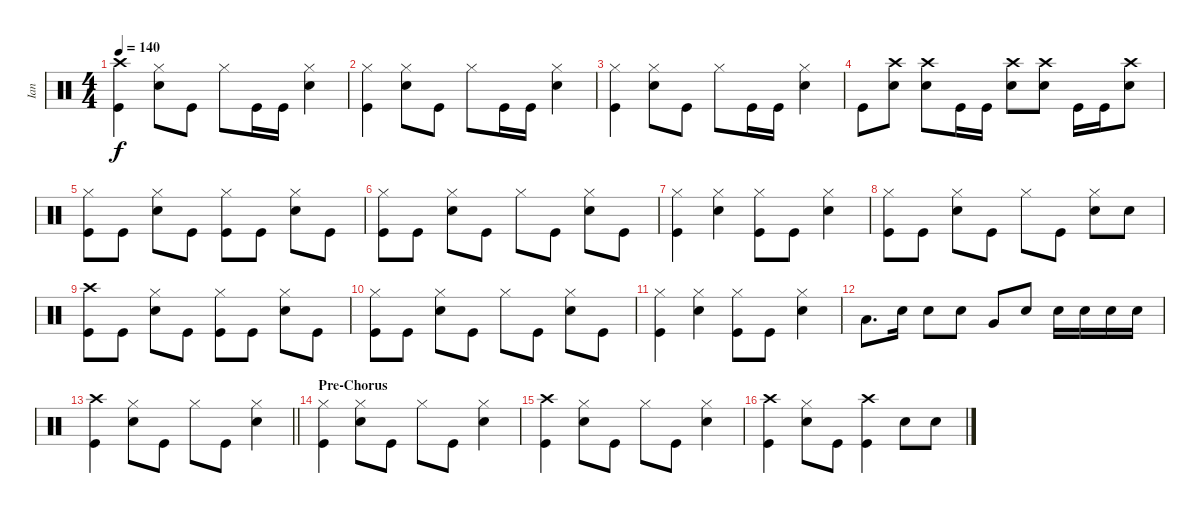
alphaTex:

\track ("Ian" "Ian") {instrument percussion}
\staff {score}
\articulation defaults
\ts (4 4)
\tempo 140
\clef neutral
\ks c
("Crash high (hit)" "Kick (hit)").4{dy f} ("Hi-Hat (closed)" "Snare (hit) 2").8 "Kick (hit)".8 "Hi-Hat (closed)".8 "Kick (hit)".16 "Kick (hit)".16 ("Hi-Hat (closed)" "Snare (hit) 2").4 |
("Hi-Hat (closed)" "Kick (hit)").4 ("Hi-Hat (closed)" "Snare (hit) 2").8 "Kick (hit)".8 "Hi-Hat (closed)".8 "Kick (hit)".16 "Kick (hit)".16 ("Hi-Hat (closed)" "Snare (hit) 2").4 |
("Hi-Hat (closed)" "Kick (hit)").4 ("Hi-Hat (closed)" "Snare (hit) 2").8 "Kick (hit)".8 "Hi-Hat (closed)".8 "Kick (hit)".16 "Kick (hit)".16 ("Hi-Hat (closed)" "Snare (hit) 2").4 |
"Kick (hit)".8 ("Snare (hit) 2" "Crash high (hit)").8 ("Snare (hit) 2" "Crash high (hit)").8 "Kick (hit)".16 "Kick (hit)".16 ("Snare (hit) 2" "Crash high (hit)").8 ("Snare (hit) 2" "Crash high (hit)").8 "Kick (hit)".16 "Kick (hit)".16 ("Snare (hit) 2" "Crash high (hit)").8 |
("Hi-Hat (closed)" "Kick (hit)").8 "Kick (hit)".8 ("Hi-Hat (closed)" "Snare (hit) 2").8 "Kick (hit)".8 ("Hi-Hat (closed)" "Kick (hit)").8 "Kick (hit)".8 ("Hi-Hat (closed)" "Snare (hit) 2").8 "Kick (hit)".8 |
("Hi-Hat (closed)" "Kick (hit)").8 "Kick (hit)".8 ("Hi-Hat (closed)" "Snare (hit) 2").8 "Kick (hit)".8 "Hi-Hat (closed)".8 "Kick (hit)".8 ("Hi-Hat (closed)" "Snare (hit) 2").8 "Kick (hit)".8 |
("Hi-Hat (closed)" "Kick (hit)").4 ("Hi-Hat (closed)" "Snare (hit) 2").4 ("Hi-Hat (closed)" "Kick (hit)").8 "Kick (hit)".8 ("Hi-Hat (closed)" "Snare (hit) 2").4 |
("Hi-Hat (closed)" "Kick (hit)").8 "Kick (hit)".8 ("Hi-Hat (closed)" "Snare (hit) 2").8 "Kick (hit)".8 "Hi-Hat (closed)".8 "Kick (hit)".8 ("Hi-Hat (closed)" "Snare (hit) 2").8 "Snare (hit) 2".8 |
("Crash high (hit)" "Kick (hit)").8 "Kick (hit)".8 ("Hi-Hat (closed)" "Snare (hit) 2").8 "Kick (hit)".8 ("Hi-Hat (closed)" "Kick (hit)").8 "Kick (hit)".8 ("Hi-Hat (closed)" "Snare (hit) 2").8 "Kick (hit)".8 |
("Hi-Hat (closed)" "Kick (hit)").8 "Kick (hit)".8 ("Hi-Hat (closed)" "Snare (hit) 2").8 "Kick (hit)".8 "Hi-Hat (closed)".8 "Kick (hit)".8 ("Hi-Hat (closed)" "Snare (hit) 2").8 "Kick (hit)".8 |
("Hi-Hat (closed)" "Kick (hit)").4 ("Hi-Hat (closed)" "Snare (hit) 2").4 ("Hi-Hat (closed)" "Kick (hit)").8 "Kick (hit)".8 ("Hi-Hat (closed)" "Snare (hit) 2").4 |
"Low Tom (hit)".8{d} "Snare (hit) 2".16 "Snare (hit) 2".8 "Snare (hit) 2".8 "Very Low Tom (hit)".8 "Snare (hit) 2".8 "Snare (hit) 2".16 "Snare (hit) 2".16 "Snare (hit) 2".16 "Snare (hit) 2".16 |
\barLineRight lightlight
("Crash high (hit)" "Kick (hit)").4 ("Hi-Hat (closed)" "Snare (hit) 2").8 "Kick (hit)".8 "Hi-Hat (closed)".8 "Kick (hit)".8 ("Hi-Hat (closed)" "Snare (hit) 2").4 |
\section ("" "Pre-Chorus")
("Hi-Hat (closed)" "Kick (hit)").4 ("Hi-Hat (closed)" "Snare (hit) 2").8 "Kick (hit)".8 "Hi-Hat (closed)".8 "Kick (hit)".8 ("Hi-Hat (closed)" "Snare (hit) 2").4 |
("Crash high (hit)" "Kick (hit)").4 ("Hi-Hat (closed)" "Snare (hit) 2").8 "Kick (hit)".8 "Hi-Hat (closed)".8 "Kick (hit)".8 ("Hi-Hat (closed)" "Snare (hit) 2").4 |
("Crash high (hit)" "Kick (hit)").4 ("Hi-Hat (closed)" "Snare (hit) 2").8 "Kick (hit)".8 ("Crash high (hit)" "Kick (hit)").4 "Snare (hit) 2".8 "Snare (hit) 2".8
